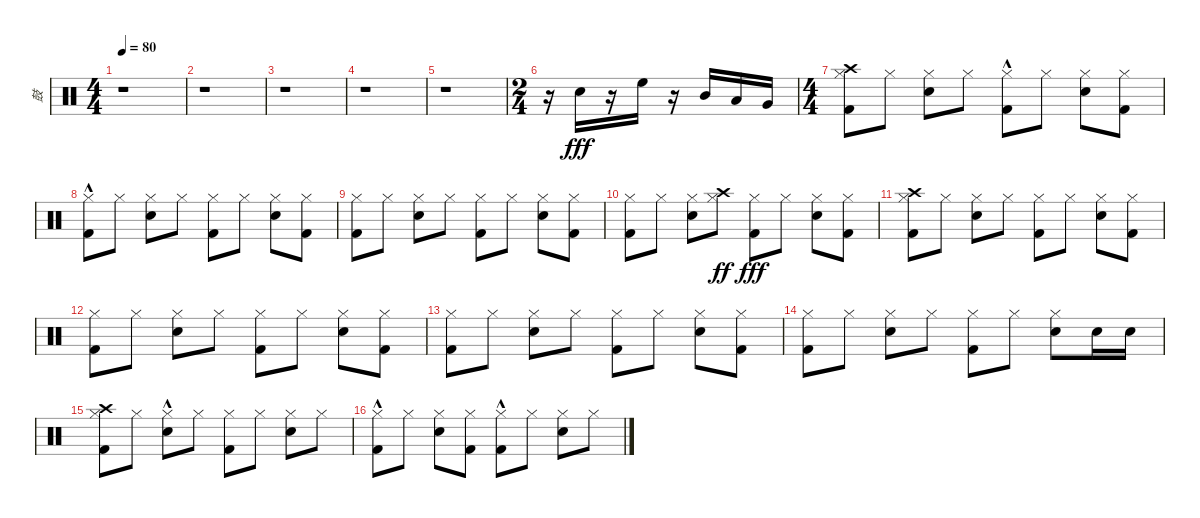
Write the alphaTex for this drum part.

\track ("鼓" "鼓") {instrument percussion}
\staff {score}
\articulation defaults
\ts (4 4)
\tempo 80
\clef neutral
\ks c
r.1{dy fff} |
r.1 |
r.1 |
r.1 |
r.1 |
\ts (2 4)
r.16 "Electric Snare (hit)".16 r.16 "High Floor Tom (hit)".16 r.16 "Mid Tom (hit)".16 "Low Tom (hit)".16 "Very Low Tom (hit)".16 |
\ts (4 4)
("Kick (hit) 2" "Hi-Hat (closed)" "Crash high (hit)").8 "Hi-Hat (closed)".8 ("Snare (hit) 2" "Hi-Hat (closed)").8 "Hi-Hat (closed)".8 ("Kick (hit) 2"{hac} "Hi-Hat (closed)").8 "Hi-Hat (closed)".8 ("Snare (hit) 2" "Hi-Hat (closed)").8 ("Kick (hit) 2" "Hi-Hat (closed)").8 |
("Kick (hit) 2"{hac} "Hi-Hat (closed)").8 "Hi-Hat (closed)".8 ("Snare (hit) 2" "Hi-Hat (closed)").8 "Hi-Hat (closed)".8 ("Kick (hit) 2" "Hi-Hat (closed)").8 "Hi-Hat (closed)".8 ("Snare (hit) 2" "Hi-Hat (closed)").8 ("Kick (hit) 2" "Hi-Hat (closed)").8 |
("Kick (hit) 2" "Hi-Hat (closed)").8 "Hi-Hat (closed)".8 ("Snare (hit) 2" "Hi-Hat (closed)").8 "Hi-Hat (closed)".8 ("Kick (hit) 2" "Hi-Hat (closed)").8 "Hi-Hat (closed)".8 ("Snare (hit) 2" "Hi-Hat (closed)").8 ("Kick (hit) 2" "Hi-Hat (closed)").8 |
("Kick (hit) 2" "Hi-Hat (closed)").8 "Hi-Hat (closed)".8 ("Snare (hit) 2" "Hi-Hat (closed)").8 ("Hi-Hat (closed)" "Crash high (hit)").8{dy ff} ("Kick (hit) 2" "Hi-Hat (closed)").8{dy fff} "Hi-Hat (closed)".8 ("Snare (hit) 2" "Hi-Hat (closed)").8 ("Kick (hit) 2" "Hi-Hat (closed)").8 |
("Kick (hit) 2" "Hi-Hat (closed)" "Crash high (hit)").8 "Hi-Hat (closed)".8 ("Snare (hit) 2" "Hi-Hat (closed)").8 "Hi-Hat (closed)".8 ("Kick (hit) 2" "Hi-Hat (closed)").8 "Hi-Hat (closed)".8 ("Snare (hit) 2" "Hi-Hat (closed)").8 ("Kick (hit) 2" "Hi-Hat (closed)").8 |
("Hi-Hat (closed)" "Kick (hit) 2").8 "Hi-Hat (closed)".8 ("Hi-Hat (closed)" "Snare (hit) 2").8 "Hi-Hat (closed)".8 ("Hi-Hat (closed)" "Kick (hit) 2").8 "Hi-Hat (closed)".8 ("Hi-Hat (closed)" "Snare (hit) 2").8 ("Hi-Hat (closed)" "Kick (hit) 2").8 |
("Kick (hit) 2" "Hi-Hat (closed)").8 "Hi-Hat (closed)".8 ("Snare (hit) 2" "Hi-Hat (closed)").8 "Hi-Hat (closed)".8 ("Kick (hit) 2" "Hi-Hat (closed)").8 "Hi-Hat (closed)".8 ("Snare (hit) 2" "Hi-Hat (closed)").8 ("Kick (hit) 2" "Hi-Hat (closed)").8 |
("Hi-Hat (closed)" "Kick (hit) 2").8 "Hi-Hat (closed)".8 ("Hi-Hat (closed)" "Snare (hit) 2").8 "Hi-Hat (closed)".8 ("Hi-Hat (closed)" "Kick (hit) 2").8 "Hi-Hat (closed)".8 ("Snare (hit) 2" "Hi-Hat (closed)").8 "Snare (hit) 2".16 "Snare (hit) 2".16 |
("Crash high (hit)" "Hi-Hat (closed)" "Kick (hit) 2").8 "Hi-Hat (closed)".8 ("Hi-Hat (closed)" "Snare (hit) 2"{hac}).8 "Hi-Hat (closed)".8 ("Kick (hit) 2" "Hi-Hat (closed)").8 "Hi-Hat (closed)".8 ("Snare (hit) 2" "Hi-Hat (closed)").8 "Hi-Hat (closed)".8 |
("Kick (hit) 2"{hac} "Hi-Hat (closed)").8 "Hi-Hat (closed)".8 ("Snare (hit) 2" "Hi-Hat (closed)").8 ("Kick (hit) 2" "Hi-Hat (closed)").8 ("Kick (hit) 2"{hac} "Hi-Hat (closed)").8 "Hi-Hat (closed)".8 ("Snare (hit) 2" "Hi-Hat (closed)").8 "Hi-Hat (closed)".8
